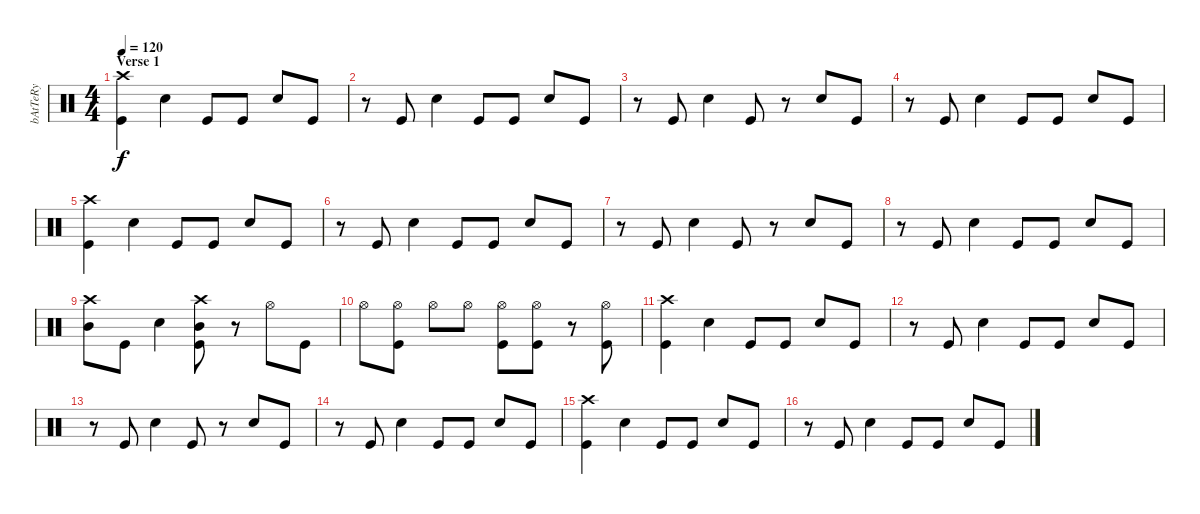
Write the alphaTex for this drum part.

\track ("bAtTeRy" "bAtTeRy") {instrument percussion}
\staff {score}
\articulation defaults
\ts (4 4)
\section ("" "Verse 1")
\tempo 120
\clef neutral
\ks c
("Crash high (hit)" "Kick (hit)").4{dy f} "Electric Snare (hit)".4 "Kick (hit)".8 "Kick (hit)".8 "Electric Snare (hit)".8 "Kick (hit)".8 |
r.8 "Kick (hit)".8 "Electric Snare (hit)".4 "Kick (hit)".8 "Kick (hit)".8 "Electric Snare (hit)".8 "Kick (hit)".8 |
r.8 "Kick (hit)".8 "Electric Snare (hit)".4 "Kick (hit)".8 r.8 "Electric Snare (hit)".8 "Kick (hit)".8 |
r.8 "Kick (hit)".8 "Electric Snare (hit)".4 "Kick (hit)".8 "Kick (hit)".8 "Electric Snare (hit)".8 "Kick (hit)".8 |
("Crash high (hit)" "Kick (hit)").4 "Electric Snare (hit)".4 "Kick (hit)".8 "Kick (hit)".8 "Electric Snare (hit)".8 "Kick (hit)".8 |
r.8 "Kick (hit)".8 "Electric Snare (hit)".4 "Kick (hit)".8 "Kick (hit)".8 "Electric Snare (hit)".8 "Kick (hit)".8 |
r.8 "Kick (hit)".8 "Electric Snare (hit)".4 "Kick (hit)".8 r.8 "Electric Snare (hit)".8 "Kick (hit)".8 |
r.8 "Kick (hit)".8 "Electric Snare (hit)".4 "Kick (hit)".8 "Kick (hit)".8 "Electric Snare (hit)".8 "Kick (hit)".8 |
("Crash high (hit)" "Mid Tom (hit)").8 "Kick (hit)".8 "Electric Snare (hit)".4 ("Crash high (hit)" "Mid Tom (hit)" "Kick (hit)").8 r.8 "Hi-Hat (open)".8 "Kick (hit)".8 |
"Hi-Hat (open)".8 ("Hi-Hat (open)" "Kick (hit)").8 "Hi-Hat (open)".8 "Hi-Hat (open)".8 ("Hi-Hat (open)" "Kick (hit)").8 ("Hi-Hat (open)" "Kick (hit)").8 r.8 ("Hi-Hat (open)" "Kick (hit)").8 |
("Crash high (hit)" "Kick (hit)").4 "Electric Snare (hit)".4 "Kick (hit)".8 "Kick (hit)".8 "Electric Snare (hit)".8 "Kick (hit)".8 |
r.8 "Kick (hit)".8 "Electric Snare (hit)".4 "Kick (hit)".8 "Kick (hit)".8 "Electric Snare (hit)".8 "Kick (hit)".8 |
r.8 "Kick (hit)".8 "Electric Snare (hit)".4 "Kick (hit)".8 r.8 "Electric Snare (hit)".8 "Kick (hit)".8 |
r.8 "Kick (hit)".8 "Electric Snare (hit)".4 "Kick (hit)".8 "Kick (hit)".8 "Electric Snare (hit)".8 "Kick (hit)".8 |
("Crash high (hit)" "Kick (hit)").4 "Electric Snare (hit)".4 "Kick (hit)".8 "Kick (hit)".8 "Electric Snare (hit)".8 "Kick (hit)".8 |
r.8 "Kick (hit)".8 "Electric Snare (hit)".4 "Kick (hit)".8 "Kick (hit)".8 "Electric Snare (hit)".8 "Kick (hit)".8
